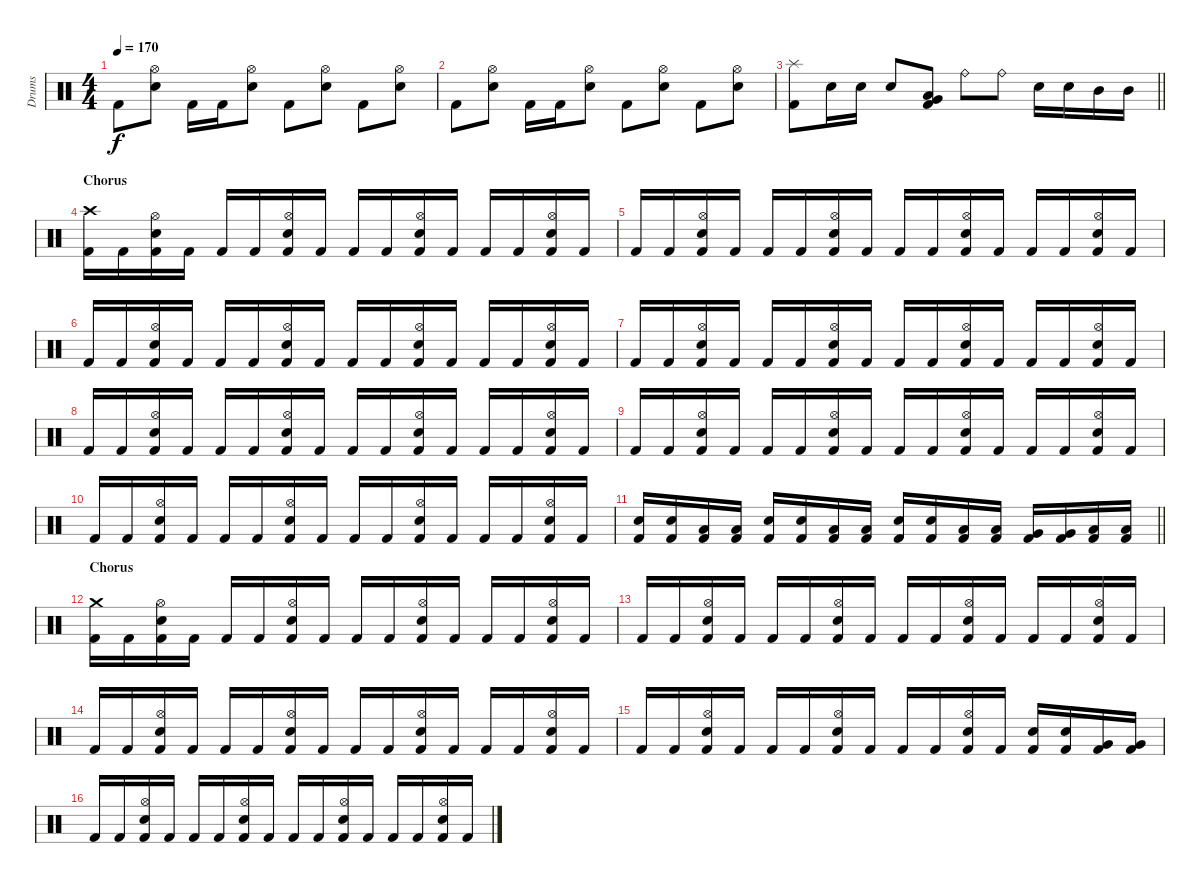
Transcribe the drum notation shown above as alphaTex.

\track ("Drums" "Drums") {instrument percussion}
\staff {score}
\articulation defaults
\ts (4 4)
\tempo 170
\clef neutral
\ks c "Kick (hit) 2".8{dy f}
("Hi-Hat (open)" "Electric Snare (hit)").8 "Kick (hit) 2".16 "Kick (hit) 2".16 ("Hi-Hat (open)" "Electric Snare (hit)").8 "Kick (hit) 2".8 ("Hi-Hat (open)" "Electric Snare (hit)").8 "Kick (hit) 2".8 ("Hi-Hat (open)" "Electric Snare (hit)").8 |
"Kick (hit) 2".8 ("Hi-Hat (open)" "Electric Snare (hit)").8 "Kick (hit) 2".16 "Kick (hit) 2".16 ("Hi-Hat (open)" "Electric Snare (hit)").8 "Kick (hit) 2".8 ("Hi-Hat (open)" "Electric Snare (hit)").8 "Kick (hit) 2".8 ("Hi-Hat (open)" "Electric Snare (hit)").8 |
\barLineRight lightlight
("Splash (hit)" "Kick (hit) 2").8 "Electric Snare (hit)".16 "Electric Snare (hit)".16 "Electric Snare (hit)".8 ("Very Low Tom (hit)" "Low Tom (hit)" "Kick (hit) 2").8 "Ride (bell)".8 "Ride (bell)".8 "Electric Snare (hit)".16 "Electric Snare (hit)".16 "Mid Tom (hit)".16 "Mid Tom (hit)".16 |
\section ("" "Chorus")
("Crash high (hit)" "Kick (hit) 2").16 "Kick (hit) 2".16 ("Hi-Hat (open)" "Electric Snare (hit)" "Kick (hit) 2").16 "Kick (hit) 2".16 "Kick (hit) 2".16 "Kick (hit) 2".16 ("Hi-Hat (open)" "Electric Snare (hit)" "Kick (hit) 2").16 "Kick (hit) 2".16 "Kick (hit) 2".16 "Kick (hit) 2".16 ("Hi-Hat (open)" "Electric Snare (hit)" "Kick (hit) 2").16 "Kick (hit) 2".16 "Kick (hit) 2".16 "Kick (hit) 2".16 ("Hi-Hat (open)" "Electric Snare (hit)" "Kick (hit) 2").16 "Kick (hit) 2".16 |
"Kick (hit) 2".16 "Kick (hit) 2".16 ("Hi-Hat (open)" "Electric Snare (hit)" "Kick (hit) 2").16 "Kick (hit) 2".16 "Kick (hit) 2".16 "Kick (hit) 2".16 ("Hi-Hat (open)" "Electric Snare (hit)" "Kick (hit) 2").16 "Kick (hit) 2".16 "Kick (hit) 2".16 "Kick (hit) 2".16 ("Hi-Hat (open)" "Electric Snare (hit)" "Kick (hit) 2").16 "Kick (hit) 2".16 "Kick (hit) 2".16 "Kick (hit) 2".16 ("Hi-Hat (open)" "Electric Snare (hit)" "Kick (hit) 2").16 "Kick (hit) 2".16 |
"Kick (hit) 2".16 "Kick (hit) 2".16 ("Hi-Hat (open)" "Electric Snare (hit)" "Kick (hit) 2").16 "Kick (hit) 2".16 "Kick (hit) 2".16 "Kick (hit) 2".16 ("Hi-Hat (open)" "Electric Snare (hit)" "Kick (hit) 2").16 "Kick (hit) 2".16 "Kick (hit) 2".16 "Kick (hit) 2".16 ("Hi-Hat (open)" "Electric Snare (hit)" "Kick (hit) 2").16 "Kick (hit) 2".16 "Kick (hit) 2".16 "Kick (hit) 2".16 ("Hi-Hat (open)" "Electric Snare (hit)" "Kick (hit) 2").16 "Kick (hit) 2".16 |
"Kick (hit) 2".16 "Kick (hit) 2".16 ("Hi-Hat (open)" "Electric Snare (hit)" "Kick (hit) 2").16 "Kick (hit) 2".16 "Kick (hit) 2".16 "Kick (hit) 2".16 ("Hi-Hat (open)" "Electric Snare (hit)" "Kick (hit) 2").16 "Kick (hit) 2".16 "Kick (hit) 2".16 "Kick (hit) 2".16 ("Hi-Hat (open)" "Electric Snare (hit)" "Kick (hit) 2").16 "Kick (hit) 2".16 "Kick (hit) 2".16 "Kick (hit) 2".16 ("Hi-Hat (open)" "Electric Snare (hit)" "Kick (hit) 2").16 "Kick (hit) 2".16 |
"Kick (hit) 2".16 "Kick (hit) 2".16 ("Hi-Hat (open)" "Electric Snare (hit)" "Kick (hit) 2").16 "Kick (hit) 2".16 "Kick (hit) 2".16 "Kick (hit) 2".16 ("Hi-Hat (open)" "Electric Snare (hit)" "Kick (hit) 2").16 "Kick (hit) 2".16 "Kick (hit) 2".16 "Kick (hit) 2".16 ("Hi-Hat (open)" "Electric Snare (hit)" "Kick (hit) 2").16 "Kick (hit) 2".16 "Kick (hit) 2".16 "Kick (hit) 2".16 ("Hi-Hat (open)" "Electric Snare (hit)" "Kick (hit) 2").16 "Kick (hit) 2".16 |
"Kick (hit) 2".16 "Kick (hit) 2".16 ("Hi-Hat (open)" "Electric Snare (hit)" "Kick (hit) 2").16 "Kick (hit) 2".16 "Kick (hit) 2".16 "Kick (hit) 2".16 ("Hi-Hat (open)" "Electric Snare (hit)" "Kick (hit) 2").16 "Kick (hit) 2".16 "Kick (hit) 2".16 "Kick (hit) 2".16 ("Hi-Hat (open)" "Electric Snare (hit)" "Kick (hit) 2").16 "Kick (hit) 2".16 "Kick (hit) 2".16 "Kick (hit) 2".16 ("Hi-Hat (open)" "Electric Snare (hit)" "Kick (hit) 2").16 "Kick (hit) 2".16 |
"Kick (hit) 2".16 "Kick (hit) 2".16 ("Hi-Hat (open)" "Electric Snare (hit)" "Kick (hit) 2").16 "Kick (hit) 2".16 "Kick (hit) 2".16 "Kick (hit) 2".16 ("Hi-Hat (open)" "Electric Snare (hit)" "Kick (hit) 2").16 "Kick (hit) 2".16 "Kick (hit) 2".16 "Kick (hit) 2".16 ("Hi-Hat (open)" "Electric Snare (hit)" "Kick (hit) 2").16 "Kick (hit) 2".16 "Kick (hit) 2".16 "Kick (hit) 2".16 ("Hi-Hat (open)" "Electric Snare (hit)" "Kick (hit) 2").16 "Kick (hit) 2".16 |
\barLineRight lightlight
("Electric Snare (hit)" "Kick (hit) 2").16 ("Electric Snare (hit)" "Kick (hit) 2").16 ("Low Tom (hit)" "Kick (hit) 2").16 ("Low Tom (hit)" "Kick (hit) 2").16 ("Electric Snare (hit)" "Kick (hit) 2").16 ("Electric Snare (hit)" "Kick (hit) 2").16 ("Low Tom (hit)" "Kick (hit) 2").16 ("Low Tom (hit)" "Kick (hit) 2").16 ("Electric Snare (hit)" "Kick (hit) 2").16 ("Electric Snare (hit)" "Kick (hit) 2").16 ("Low Tom (hit)" "Kick (hit) 2").16 ("Low Tom (hit)" "Kick (hit) 2").16 ("Very Low Tom (hit)" "Kick (hit) 2").16 ("Very Low Tom (hit)" "Kick (hit) 2").16 ("Low Floor Tom (hit)" "Kick (hit) 2").16 ("Low Floor Tom (hit)" "Kick (hit) 2").16 |
\section ("" "Chorus")
("Crash medium (hit)" "Kick (hit) 2").16 "Kick (hit) 2".16 ("Hi-Hat (open)" "Electric Snare (hit)" "Kick (hit) 2").16 "Kick (hit) 2".16 "Kick (hit) 2".16 "Kick (hit) 2".16 ("Hi-Hat (open)" "Electric Snare (hit)" "Kick (hit) 2").16 "Kick (hit) 2".16 "Kick (hit) 2".16 "Kick (hit) 2".16 ("Hi-Hat (open)" "Electric Snare (hit)" "Kick (hit) 2").16 "Kick (hit) 2".16 "Kick (hit) 2".16 "Kick (hit) 2".16 ("Hi-Hat (open)" "Electric Snare (hit)" "Kick (hit) 2").16 "Kick (hit) 2".16 |
"Kick (hit) 2".16 "Kick (hit) 2".16 ("Hi-Hat (open)" "Electric Snare (hit)" "Kick (hit) 2").16 "Kick (hit) 2".16 "Kick (hit) 2".16 "Kick (hit) 2".16 ("Hi-Hat (open)" "Electric Snare (hit)" "Kick (hit) 2").16 "Kick (hit) 2".16 "Kick (hit) 2".16 "Kick (hit) 2".16 ("Hi-Hat (open)" "Electric Snare (hit)" "Kick (hit) 2").16 "Kick (hit) 2".16 "Kick (hit) 2".16 "Kick (hit) 2".16 ("Hi-Hat (open)" "Electric Snare (hit)" "Kick (hit) 2").16 "Kick (hit) 2".16 |
"Kick (hit) 2".16 "Kick (hit) 2".16 ("Hi-Hat (open)" "Electric Snare (hit)" "Kick (hit) 2").16 "Kick (hit) 2".16 "Kick (hit) 2".16 "Kick (hit) 2".16 ("Hi-Hat (open)" "Electric Snare (hit)" "Kick (hit) 2").16 "Kick (hit) 2".16 "Kick (hit) 2".16 "Kick (hit) 2".16 ("Hi-Hat (open)" "Electric Snare (hit)" "Kick (hit) 2").16 "Kick (hit) 2".16 "Kick (hit) 2".16 "Kick (hit) 2".16 ("Hi-Hat (open)" "Electric Snare (hit)" "Kick (hit) 2").16 "Kick (hit) 2".16 |
"Kick (hit) 2".16 "Kick (hit) 2".16 ("Hi-Hat (open)" "Electric Snare (hit)" "Kick (hit) 2").16 "Kick (hit) 2".16 "Kick (hit) 2".16 "Kick (hit) 2".16 ("Hi-Hat (open)" "Electric Snare (hit)" "Kick (hit) 2").16 "Kick (hit) 2".16 "Kick (hit) 2".16 "Kick (hit) 2".16 ("Hi-Hat (open)" "Electric Snare (hit)" "Kick (hit) 2").16 "Kick (hit) 2".16 ("Electric Snare (hit)" "Kick (hit) 2").16 ("Electric Snare (hit)" "Kick (hit) 2").16 ("Very Low Tom (hit)" "Kick (hit) 2").16 ("Very Low Tom (hit)" "Kick (hit) 2").16 |
"Kick (hit) 2".16 "Kick (hit) 2".16 ("Hi-Hat (open)" "Electric Snare (hit)" "Kick (hit) 2").16 "Kick (hit) 2".16 "Kick (hit) 2".16 "Kick (hit) 2".16 ("Hi-Hat (open)" "Electric Snare (hit)" "Kick (hit) 2").16 "Kick (hit) 2".16 "Kick (hit) 2".16 "Kick (hit) 2".16 ("Hi-Hat (open)" "Electric Snare (hit)" "Kick (hit) 2").16 "Kick (hit) 2".16 "Kick (hit) 2".16 "Kick (hit) 2".16 ("Hi-Hat (open)" "Electric Snare (hit)" "Kick (hit) 2").16 "Kick (hit) 2".16
